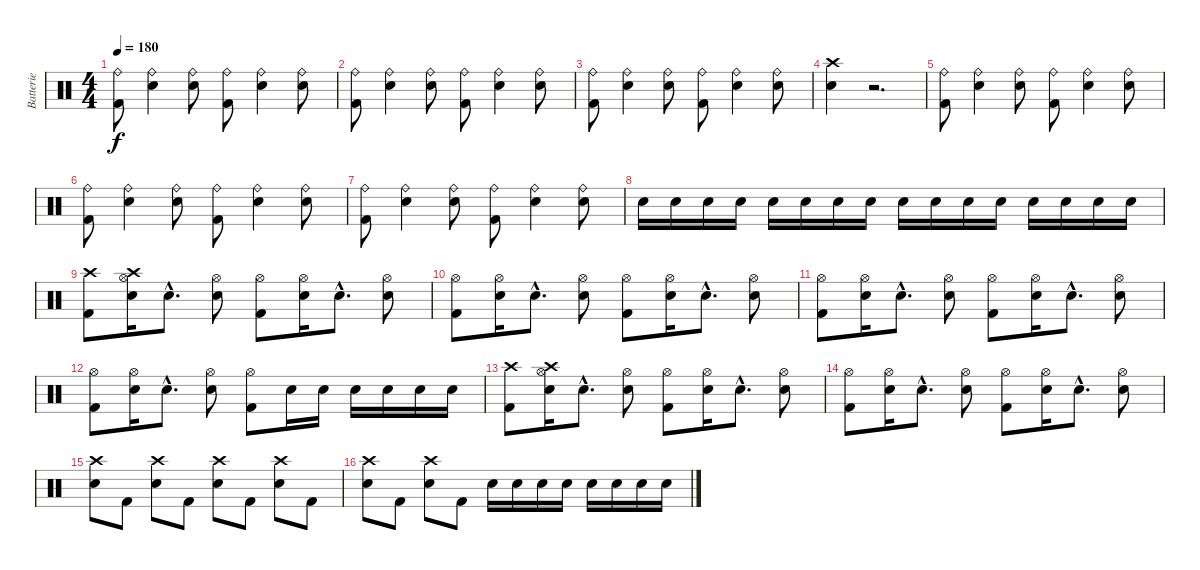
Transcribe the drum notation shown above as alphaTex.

\track ("Batterie" "Batterie") {instrument percussion}
\staff {score}
\articulation defaults
\ts (4 4)
\tempo 180
\clef neutral
\ks c
("Ride (bell)" "Kick (hit) 2").8{dy f} ("Ride (bell)" "Electric Snare (hit)").4 ("Ride (bell)" "Electric Snare (hit)").8 ("Ride (bell)" "Kick (hit) 2").8 ("Ride (bell)" "Electric Snare (hit)").4 ("Ride (bell)" "Electric Snare (hit)").8 |
("Ride (bell)" "Kick (hit) 2").8 ("Ride (bell)" "Electric Snare (hit)").4 ("Ride (bell)" "Electric Snare (hit)").8 ("Ride (bell)" "Kick (hit) 2").8 ("Ride (bell)" "Electric Snare (hit)").4 ("Ride (bell)" "Electric Snare (hit)").8 |
("Ride (bell)" "Kick (hit) 2").8 ("Ride (bell)" "Electric Snare (hit)").4 ("Ride (bell)" "Electric Snare (hit)").8 ("Ride (bell)" "Kick (hit) 2").8 ("Ride (bell)" "Electric Snare (hit)").4 ("Ride (bell)" "Electric Snare (hit)").8 |
("Crash high (hit)" "Electric Snare (hit)").4 r.2{d} |
("Ride (bell)" "Kick (hit) 2").8 ("Ride (bell)" "Electric Snare (hit)").4 ("Ride (bell)" "Electric Snare (hit)").8 ("Ride (bell)" "Kick (hit) 2").8 ("Ride (bell)" "Electric Snare (hit)").4 ("Ride (bell)" "Electric Snare (hit)").8 |
("Ride (bell)" "Kick (hit) 2").8 ("Ride (bell)" "Electric Snare (hit)").4 ("Ride (bell)" "Electric Snare (hit)").8 ("Ride (bell)" "Kick (hit) 2").8 ("Ride (bell)" "Electric Snare (hit)").4 ("Ride (bell)" "Electric Snare (hit)").8 |
("Ride (bell)" "Kick (hit) 2").8 ("Ride (bell)" "Electric Snare (hit)").4 ("Ride (bell)" "Electric Snare (hit)").8 ("Ride (bell)" "Kick (hit) 2").8 ("Ride (bell)" "Electric Snare (hit)").4 ("Ride (bell)" "Electric Snare (hit)").8 |
"Electric Snare (hit)".16 "Electric Snare (hit)".16 "Electric Snare (hit)".16 "Electric Snare (hit)".16 "Electric Snare (hit)".16 "Electric Snare (hit)".16 "Electric Snare (hit)".16 "Electric Snare (hit)".16 "Electric Snare (hit)".16 "Electric Snare (hit)".16 "Electric Snare (hit)".16 "Electric Snare (hit)".16 "Electric Snare (hit)".16 "Electric Snare (hit)".16 "Electric Snare (hit)".16 "Electric Snare (hit)".16 |
("Crash high (hit)" "Kick (hit) 2").8 ("Crash high (hit)" "Hi-Hat (open)" "Electric Snare (hit)").16 "Electric Snare (hit)"{hac}.8{d} ("Hi-Hat (open)" "Electric Snare (hit)").8 ("Hi-Hat (open)" "Kick (hit) 2").8 ("Hi-Hat (open)" "Electric Snare (hit)").16 "Electric Snare (hit)"{hac}.8{d} ("Hi-Hat (open)" "Electric Snare (hit)").8 |
("Hi-Hat (open)" "Kick (hit) 2").8 ("Hi-Hat (open)" "Electric Snare (hit)").16 "Electric Snare (hit)"{hac}.8{d} ("Hi-Hat (open)" "Electric Snare (hit)").8 ("Hi-Hat (open)" "Kick (hit) 2").8 ("Hi-Hat (open)" "Electric Snare (hit)").16 "Electric Snare (hit)"{hac}.8{d} ("Hi-Hat (open)" "Electric Snare (hit)").8 |
("Hi-Hat (open)" "Kick (hit) 2").8 ("Hi-Hat (open)" "Electric Snare (hit)").16 "Electric Snare (hit)"{hac}.8{d} ("Hi-Hat (open)" "Electric Snare (hit)").8 ("Hi-Hat (open)" "Kick (hit) 2").8 ("Hi-Hat (open)" "Electric Snare (hit)").16 "Electric Snare (hit)"{hac}.8{d} ("Hi-Hat (open)" "Electric Snare (hit)").8 |
("Hi-Hat (open)" "Kick (hit) 2").8 ("Hi-Hat (open)" "Electric Snare (hit)").16 "Electric Snare (hit)"{hac}.8{d} ("Hi-Hat (open)" "Electric Snare (hit)").8 ("Hi-Hat (open)" "Kick (hit) 2").8 "Electric Snare (hit)".16 "Electric Snare (hit)".16 "Electric Snare (hit)".16 "Electric Snare (hit)".16 "Electric Snare (hit)".16 "Electric Snare (hit)".16 |
("Crash high (hit)" "Kick (hit) 2").8 ("Crash high (hit)" "Hi-Hat (open)" "Electric Snare (hit)").16 "Electric Snare (hit)"{hac}.8{d} ("Hi-Hat (open)" "Electric Snare (hit)").8 ("Hi-Hat (open)" "Kick (hit) 2").8 ("Hi-Hat (open)" "Electric Snare (hit)").16 "Electric Snare (hit)"{hac}.8{d} ("Hi-Hat (open)" "Electric Snare (hit)").8 |
("Hi-Hat (open)" "Kick (hit) 2").8 ("Hi-Hat (open)" "Electric Snare (hit)").16 "Electric Snare (hit)"{hac}.8{d} ("Hi-Hat (open)" "Electric Snare (hit)").8 ("Hi-Hat (open)" "Kick (hit) 2").8 ("Hi-Hat (open)" "Electric Snare (hit)").16 "Electric Snare (hit)"{hac}.8{d} ("Hi-Hat (open)" "Electric Snare (hit)").8 |
("Crash high (hit)" "Electric Snare (hit)").8 "Kick (hit) 2".8 ("Crash high (hit)" "Electric Snare (hit)").8 "Kick (hit) 2".8 ("Crash high (hit)" "Electric Snare (hit)").8 "Kick (hit) 2".8 ("Crash high (hit)" "Electric Snare (hit)").8 "Kick (hit) 2".8 |
("Crash high (hit)" "Electric Snare (hit)").8 "Kick (hit) 2".8 ("Crash high (hit)" "Electric Snare (hit)").8 "Kick (hit) 2".8 "Electric Snare (hit)".16 "Electric Snare (hit)".16 "Electric Snare (hit)".16 "Electric Snare (hit)".16 "Electric Snare (hit)".16 "Electric Snare (hit)".16 "Electric Snare (hit)".16 "Electric Snare (hit)".16
